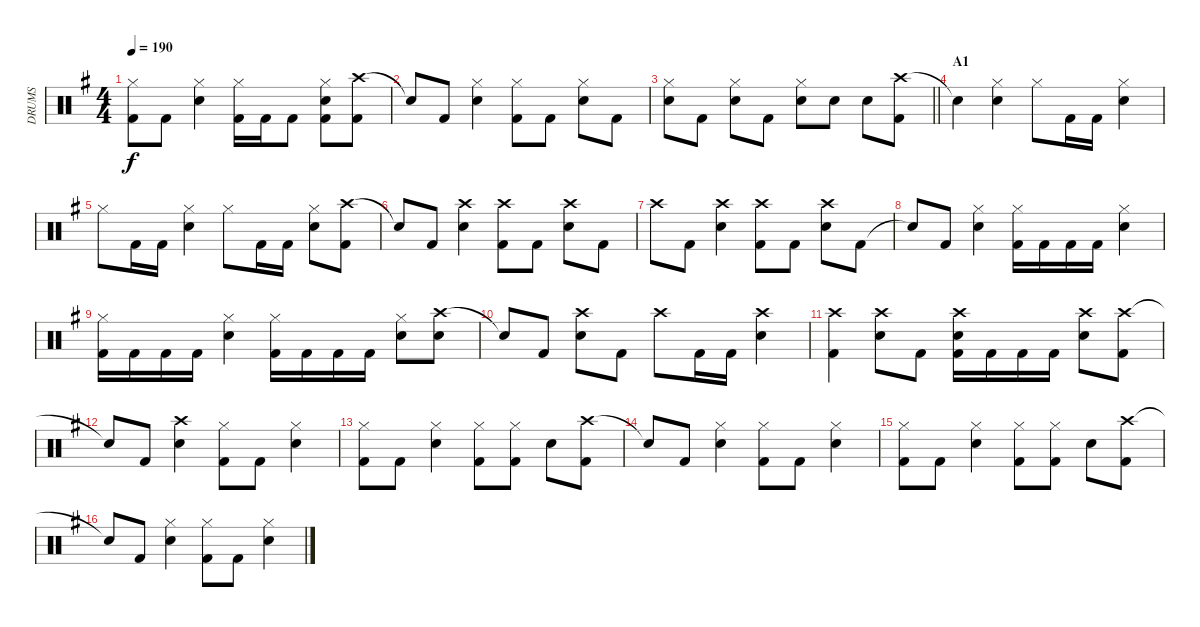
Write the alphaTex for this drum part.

\track ("DRUMS" "DRUMS") {instrument percussion}
\staff {score}
\articulation defaults
\ts (4 4)
\tempo 190
\clef neutral
\ks g
("Hi-Hat (closed)" "Kick (hit) 2").8{dy f} "Kick (hit) 2".8 ("Hi-Hat (closed)" "Snare (hit) 2").4 ("Hi-Hat (closed)" "Kick (hit) 2").16 "Kick (hit) 2".16 "Kick (hit) 2".8 ("Hi-Hat (closed)" "Snare (hit) 2" "Kick (hit) 2").8 ("Crash high (hit)" "Kick (hit) 2").8 |
"Snare (hit)"{t}.8 "Kick (hit) 2".8 ("Hi-Hat (closed)" "Snare (hit) 2").4 ("Hi-Hat (closed)" "Kick (hit) 2").8 "Kick (hit) 2".8 ("Hi-Hat (closed)" "Snare (hit) 2").8 "Kick (hit) 2".8 |
\barLineRight lightlight
("Snare (hit) 2" "Hi-Hat (closed)").8 "Kick (hit) 2".8 ("Snare (hit) 2" "Hi-Hat (closed)").8 "Kick (hit) 2".8 ("Snare (hit) 2" "Hi-Hat (closed)").8 "Snare (hit) 2".8 "Snare (hit) 2".8 ("Crash high (hit)" "Kick (hit) 2").8 |
\section ("" "A1")
"Snare (hit)"{t}.4 ("Hi-Hat (closed)" "Snare (hit) 2").4 "Hi-Hat (closed)".8 "Kick (hit) 2".16 "Kick (hit) 2".16 ("Hi-Hat (closed)" "Snare (hit) 2").4 |
"Hi-Hat (closed)".8 "Kick (hit) 2".16 "Kick (hit) 2".16 ("Hi-Hat (closed)" "Snare (hit) 2").4 "Hi-Hat (closed)".8 "Kick (hit) 2".16 "Kick (hit) 2".16 ("Hi-Hat (closed)" "Snare (hit) 2").8 ("Crash high (hit)" "Kick (hit) 2").8 |
"Snare (hit)"{t}.8 "Kick (hit) 2".8 ("Crash high (hit)" "Snare (hit) 2").4 ("Crash high (hit)" "Kick (hit) 2").8 "Kick (hit) 2".8 ("Crash high (hit)" "Snare (hit) 2").8 "Kick (hit) 2".8 |
"Crash high (hit)".8 "Kick (hit) 2".8 ("Crash high (hit)" "Snare (hit) 2").4 ("Crash high (hit)" "Kick (hit) 2").8 "Kick (hit) 2".8 ("Crash high (hit)" "Snare (hit) 2").8 "Kick (hit) 2".8 |
"Snare (hit)"{t}.8 "Kick (hit) 2".8 ("Hi-Hat (closed)" "Snare (hit) 2").4 ("Hi-Hat (closed)" "Kick (hit) 2").16 "Kick (hit) 2".16 "Kick (hit) 2".16 "Kick (hit) 2".16 ("Hi-Hat (closed)" "Snare (hit) 2").4 |
("Hi-Hat (closed)" "Kick (hit) 2").16 "Kick (hit) 2".16 "Kick (hit) 2".16 "Kick (hit) 2".16 ("Hi-Hat (closed)" "Snare (hit) 2").4 ("Hi-Hat (closed)" "Kick (hit) 2").16 "Kick (hit) 2".16 "Kick (hit) 2".16 "Kick (hit) 2".16 ("Hi-Hat (closed)" "Snare (hit) 2").8 ("Crash high (hit)" "Snare (hit) 2").8 |
"Snare (hit)"{t}.8 "Kick (hit) 2".8 ("Crash high (hit)" "Snare (hit) 2").8 "Kick (hit) 2".8 "Crash high (hit)".8 "Kick (hit) 2".16 "Kick (hit) 2".16 ("Crash high (hit)" "Snare (hit) 2").4 |
("Crash high (hit)" "Kick (hit) 2").4 ("Crash high (hit)" "Snare (hit) 2").8 "Kick (hit) 2".8 ("Snare (hit) 2" "Kick (hit) 2" "Crash high (hit)").16 "Kick (hit) 2".16 "Kick (hit) 2".16 "Kick (hit) 2".16 ("Crash high (hit)" "Snare (hit) 2").8 ("Crash high (hit)" "Kick (hit) 2").8 |
"Snare (hit)"{t}.8 "Kick (hit) 2".8 ("Crash high (hit)" "Snare (hit) 2").4 ("Hi-Hat (closed)" "Kick (hit) 2").8 "Kick (hit) 2".8 ("Hi-Hat (closed)" "Snare (hit) 2").4 |
("Hi-Hat (closed)" "Kick (hit) 2").8 "Kick (hit) 2".8 ("Hi-Hat (closed)" "Snare (hit) 2").4 ("Hi-Hat (closed)" "Kick (hit) 2").8 ("Hi-Hat (closed)" "Kick (hit) 2").8 "Snare (hit) 2".8 ("Crash high (hit)" "Kick (hit) 2").8 |
"Snare (hit)"{t}.8 "Kick (hit) 2".8 ("Hi-Hat (closed)" "Snare (hit) 2").4 ("Hi-Hat (closed)" "Kick (hit) 2").8 "Kick (hit) 2".8 ("Hi-Hat (closed)" "Snare (hit) 2").4 |
("Hi-Hat (closed)" "Kick (hit) 2").8 "Kick (hit) 2".8 ("Hi-Hat (closed)" "Snare (hit) 2").4 ("Hi-Hat (closed)" "Kick (hit) 2").8 ("Hi-Hat (closed)" "Kick (hit) 2").8 "Snare (hit) 2".8 ("Crash high (hit)" "Kick (hit) 2").8 |
"Snare (hit)"{t}.8 "Kick (hit) 2".8 ("Hi-Hat (closed)" "Snare (hit) 2").4 ("Hi-Hat (closed)" "Kick (hit) 2").8 "Kick (hit) 2".8 ("Hi-Hat (closed)" "Snare (hit) 2").4
